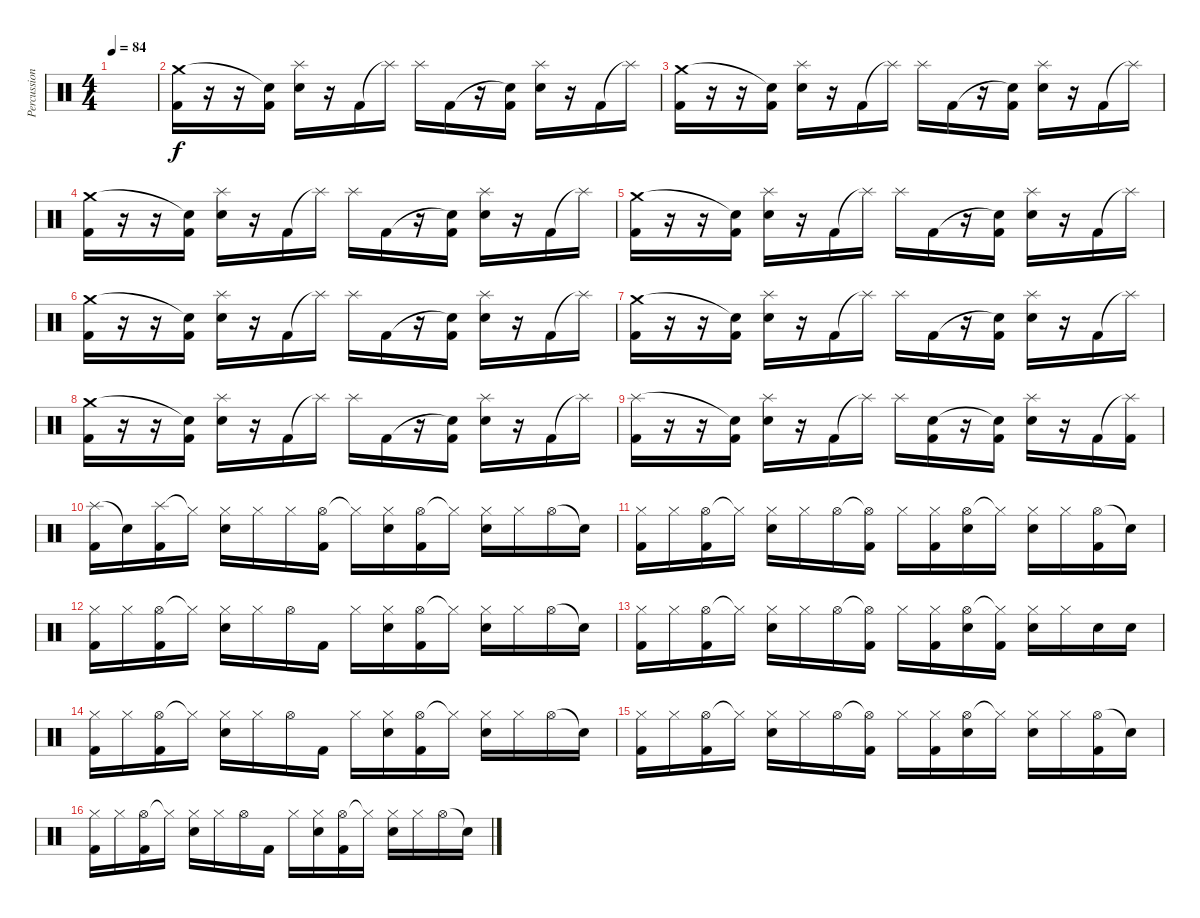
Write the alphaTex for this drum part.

\track ("Percussion" "Percussion") {instrument percussion}
\staff {score}
\articulation defaults
\ts (4 4)
\tempo 84
\clef neutral
\ks c
|
("Crash medium (hit)" "Kick (hit) 2").16 r.16 r.16 ("Snare (hit)"{t} "Kick (hit) 2").16 ("Splash (hit)" "Electric Snare (hit)").16 r.16 "Kick (hit) 2".16 "Splash (hit)"{t}.16 "Splash (hit)".16 "Kick (hit) 2".16 r.16 ("Snare (hit)"{t} "Kick (hit) 2").16 ("Splash (hit)" "Electric Snare (hit)").16 r.16 "Kick (hit) 2".16 "Splash (hit)"{t}.16 |
("Crash medium (hit)" "Kick (hit) 2").16 r.16 r.16 ("Snare (hit)"{t} "Kick (hit) 2").16 ("Splash (hit)" "Electric Snare (hit)").16 r.16 "Kick (hit) 2".16 "Splash (hit)"{t}.16 "Splash (hit)".16 "Kick (hit) 2".16 r.16 ("Snare (hit)"{t} "Kick (hit) 2").16 ("Splash (hit)" "Electric Snare (hit)").16 r.16 "Kick (hit) 2".16 "Splash (hit)"{t}.16 |
("Crash medium (hit)" "Kick (hit) 2").16 r.16 r.16 ("Snare (hit)"{t} "Kick (hit) 2").16 ("Splash (hit)" "Electric Snare (hit)").16 r.16 "Kick (hit) 2".16 "Splash (hit)"{t}.16 "Splash (hit)".16 "Kick (hit) 2".16 r.16 ("Snare (hit)"{t} "Kick (hit) 2").16 ("Splash (hit)" "Electric Snare (hit)").16 r.16 "Kick (hit) 2".16 "Splash (hit)"{t}.16 |
("Crash medium (hit)" "Kick (hit) 2").16 r.16 r.16 ("Snare (hit)"{t} "Kick (hit) 2").16 ("Splash (hit)" "Electric Snare (hit)").16 r.16 "Kick (hit) 2".16 "Splash (hit)"{t}.16 "Splash (hit)".16 "Kick (hit) 2".16 r.16 ("Snare (hit)"{t} "Kick (hit) 2").16 ("Splash (hit)" "Electric Snare (hit)").16 r.16 "Kick (hit) 2".16 "Splash (hit)"{t}.16 |
("Crash medium (hit)" "Kick (hit) 2").16 r.16 r.16 ("Snare (hit)"{t} "Kick (hit) 2").16 ("Splash (hit)" "Electric Snare (hit)").16 r.16 "Kick (hit) 2".16 "Splash (hit)"{t}.16 "Splash (hit)".16 "Kick (hit) 2".16 r.16 ("Snare (hit)"{t} "Kick (hit) 2").16 ("Splash (hit)" "Electric Snare (hit)").16 r.16 "Kick (hit) 2".16 "Splash (hit)"{t}.16 |
("Crash medium (hit)" "Kick (hit) 2").16 r.16 r.16 ("Snare (hit)"{t} "Kick (hit) 2").16 ("Splash (hit)" "Electric Snare (hit)").16 r.16 "Kick (hit) 2".16 "Splash (hit)"{t}.16 "Splash (hit)".16 "Kick (hit) 2".16 r.16 ("Snare (hit)"{t} "Kick (hit) 2").16 ("Splash (hit)" "Electric Snare (hit)").16 r.16 "Kick (hit) 2".16 "Splash (hit)"{t}.16 |
("Crash medium (hit)" "Kick (hit) 2").16 r.16 r.16 ("Snare (hit)"{t} "Kick (hit) 2").16 ("Splash (hit)" "Electric Snare (hit)").16 r.16 "Kick (hit) 2".16 "Splash (hit)"{t}.16 "Splash (hit)".16 "Kick (hit) 2".16 r.16 ("Snare (hit)"{t} "Kick (hit) 2").16 ("Splash (hit)" "Electric Snare (hit)").16 r.16 "Kick (hit) 2".16 "Splash (hit)"{t}.16 |
("Splash (hit)" "Kick (hit) 2").16 r.16 r.16 ("Snare (hit)"{t} "Kick (hit) 2").16 ("Splash (hit)" "Electric Snare (hit)").16 r.16 "Kick (hit) 2".16 "Splash (hit)"{t}.16 "Splash (hit)".16 ("Electric Snare (hit)" "Kick (hit) 2").16 r.16 ("Snare (hit)"{t} "Kick (hit) 2").16 ("Splash (hit)" "Electric Snare (hit)").16 r.16 "Kick (hit) 2".16 ("Splash (hit)"{t} "Kick (hit) 2").16 |
("Splash (hit)" "Kick (hit) 2").16 "Snare (hit)"{t}.16 ("Splash (hit)" "Kick (hit) 2").16 "Hi-Hat (closed)"{t}.16 ("Hi-Hat (closed)" "Electric Snare (hit)").16 "Hi-Hat (closed)".16 "Hi-Hat (closed)".16 ("Hi-Hat (open)" "Kick (hit) 2").16 "Hi-Hat (closed)"{t}.16 ("Hi-Hat (closed)" "Electric Snare (hit)").16 ("Hi-Hat (open)" "Kick (hit) 2").16 "Hi-Hat (closed)"{t}.16 ("Hi-Hat (closed)" "Electric Snare (hit)").16 "Hi-Hat (closed)".16 "Hi-Hat (open)".16 "Snare (hit)"{t}.16 |
("Hi-Hat (closed)" "Kick (hit) 2").16 "Hi-Hat (closed)".16 ("Hi-Hat (open)" "Kick (hit) 2").16 "Hi-Hat (closed)"{t}.16 ("Hi-Hat (closed)" "Electric Snare (hit)").16 "Hi-Hat (closed)".16 "Hi-Hat (open)".16 ("Hi-Hat (open)"{t} "Kick (hit) 2").16 "Hi-Hat (closed)".16 ("Hi-Hat (closed)" "Kick (hit) 2").16 ("Hi-Hat (open)" "Electric Snare (hit)").16 "Hi-Hat (closed)"{t}.16 ("Hi-Hat (closed)" "Electric Snare (hit)").16 "Hi-Hat (closed)".16 ("Hi-Hat (open)" "Kick (hit) 2").16 "Snare (hit)"{t}.16 |
("Hi-Hat (closed)" "Kick (hit) 2").16 "Hi-Hat (closed)".16 ("Hi-Hat (open)" "Kick (hit) 2").16 "Hi-Hat (closed)"{t}.16 ("Hi-Hat (closed)" "Electric Snare (hit)").16 "Hi-Hat (closed)".16 "Hi-Hat (open)".16 "Kick (hit) 2".16 "Hi-Hat (closed)".16 ("Hi-Hat (closed)" "Electric Snare (hit)").16 ("Hi-Hat (open)" "Kick (hit) 2").16 "Hi-Hat (closed)"{t}.16 ("Hi-Hat (closed)" "Electric Snare (hit)").16 "Hi-Hat (closed)".16 "Hi-Hat (open)".16 "Snare (hit)"{t}.16 |
("Hi-Hat (closed)" "Kick (hit) 2").16 "Hi-Hat (closed)".16 ("Hi-Hat (open)" "Kick (hit) 2").16 "Hi-Hat (closed)"{t}.16 ("Hi-Hat (closed)" "Electric Snare (hit)").16 "Hi-Hat (closed)".16 "Hi-Hat (open)".16 ("Hi-Hat (open)"{t} "Kick (hit) 2").16 "Hi-Hat (closed)".16 ("Hi-Hat (closed)" "Kick (hit) 2").16 ("Hi-Hat (open)" "Electric Snare (hit)").16 ("Hi-Hat (closed)"{t} "Kick (hit) 2").16 ("Hi-Hat (closed)" "Electric Snare (hit)").16 "Hi-Hat (closed)".16 "Electric Snare (hit)".16 "Electric Snare (hit)".16 |
("Hi-Hat (closed)" "Kick (hit) 2").16 "Hi-Hat (closed)".16 ("Hi-Hat (open)" "Kick (hit) 2").16 "Hi-Hat (closed)"{t}.16 ("Hi-Hat (closed)" "Electric Snare (hit)").16 "Hi-Hat (closed)".16 "Hi-Hat (open)".16 "Kick (hit) 2".16 "Hi-Hat (closed)".16 ("Hi-Hat (closed)" "Electric Snare (hit)").16 ("Hi-Hat (open)" "Kick (hit) 2").16 "Hi-Hat (closed)"{t}.16 ("Hi-Hat (closed)" "Electric Snare (hit)").16 "Hi-Hat (closed)".16 "Hi-Hat (open)".16 "Snare (hit)"{t}.16 |
("Hi-Hat (closed)" "Kick (hit) 2").16 "Hi-Hat (closed)".16 ("Hi-Hat (open)" "Kick (hit) 2").16 "Hi-Hat (closed)"{t}.16 ("Hi-Hat (closed)" "Electric Snare (hit)").16 "Hi-Hat (closed)".16 "Hi-Hat (open)".16 ("Hi-Hat (open)"{t} "Kick (hit) 2").16 "Hi-Hat (closed)".16 ("Hi-Hat (closed)" "Kick (hit) 2").16 ("Hi-Hat (open)" "Electric Snare (hit)").16 "Hi-Hat (closed)"{t}.16 ("Hi-Hat (closed)" "Electric Snare (hit)").16 "Hi-Hat (closed)".16 ("Hi-Hat (open)" "Kick (hit) 2").16 "Snare (hit)"{t}.16 |
("Hi-Hat (closed)" "Kick (hit) 2").16 "Hi-Hat (closed)".16 ("Hi-Hat (open)" "Kick (hit) 2").16 "Hi-Hat (closed)"{t}.16 ("Hi-Hat (closed)" "Electric Snare (hit)").16 "Hi-Hat (closed)".16 "Hi-Hat (open)".16 "Kick (hit) 2".16 "Hi-Hat (closed)".16 ("Hi-Hat (closed)" "Electric Snare (hit)").16 ("Hi-Hat (open)" "Kick (hit) 2").16 "Hi-Hat (closed)"{t}.16 ("Hi-Hat (closed)" "Electric Snare (hit)").16 "Hi-Hat (closed)".16 "Hi-Hat (open)".16 "Snare (hit)"{t}.16
